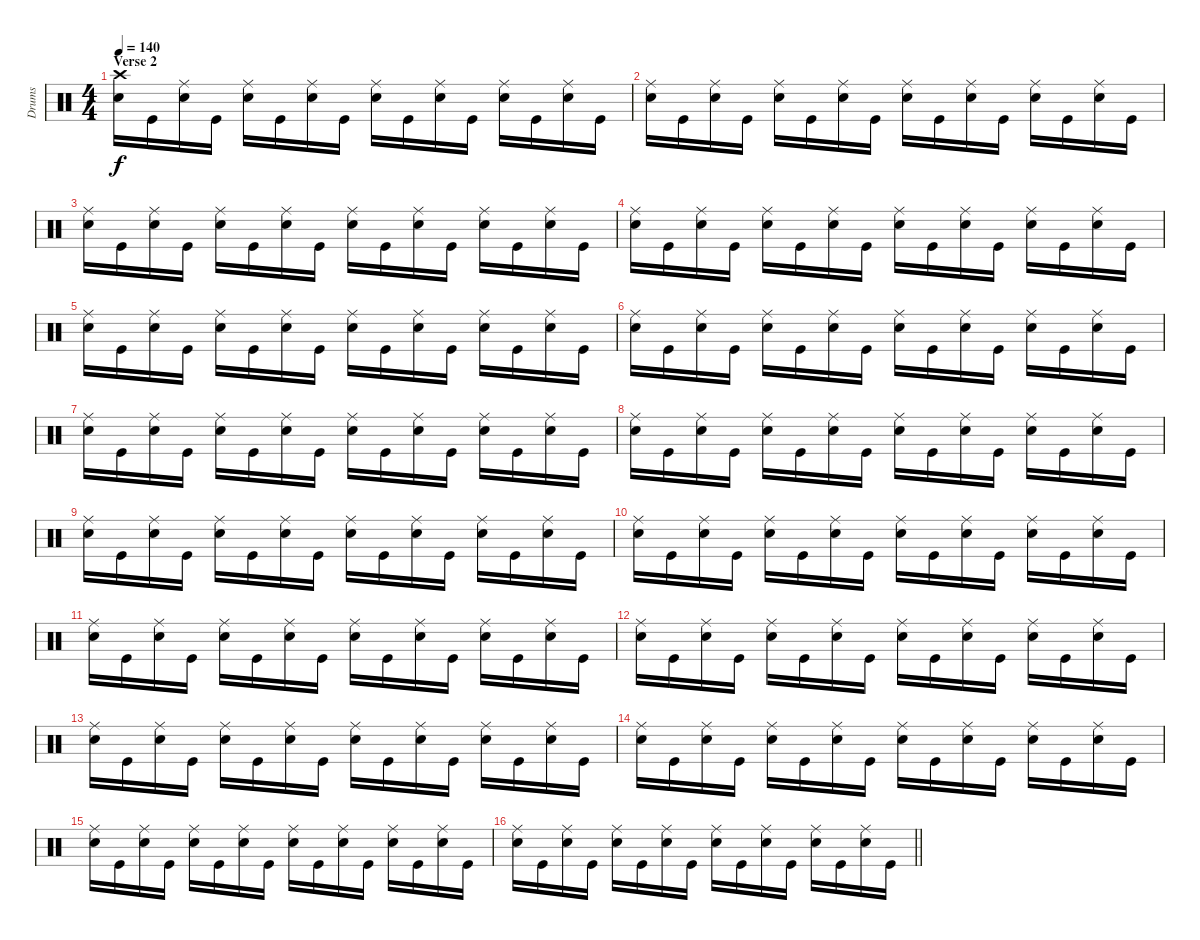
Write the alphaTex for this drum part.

\track ("Drums" "Drums") {instrument percussion}
\staff {score}
\articulation defaults
\ts (4 4)
\section ("" "Verse 2")
\tempo 140
\clef neutral
\ks c
("Crash high (hit)" "Snare (hit) 2").16{dy f} "Kick (hit)".16 ("Ride (middle)" "Snare (hit) 2").16 "Kick (hit)".16 ("Ride (middle)" "Snare (hit) 2").16 "Kick (hit)".16 ("Ride (middle)" "Snare (hit) 2").16 "Kick (hit)".16 ("Ride (middle)" "Snare (hit) 2").16 "Kick (hit)".16 ("Ride (middle)" "Snare (hit) 2").16 "Kick (hit)".16 ("Ride (middle)" "Snare (hit) 2").16 "Kick (hit)".16 ("Ride (middle)" "Snare (hit) 2").16 "Kick (hit)".16 |
("Ride (middle)" "Snare (hit) 2").16 "Kick (hit)".16 ("Ride (middle)" "Snare (hit) 2").16 "Kick (hit)".16 ("Ride (middle)" "Snare (hit) 2").16 "Kick (hit)".16 ("Ride (middle)" "Snare (hit) 2").16 "Kick (hit)".16 ("Ride (middle)" "Snare (hit) 2").16 "Kick (hit)".16 ("Ride (middle)" "Snare (hit) 2").16 "Kick (hit)".16 ("Ride (middle)" "Snare (hit) 2").16 "Kick (hit)".16 ("Ride (middle)" "Snare (hit) 2").16 "Kick (hit)".16 |
("Ride (middle)" "Snare (hit) 2").16 "Kick (hit)".16 ("Ride (middle)" "Snare (hit) 2").16 "Kick (hit)".16 ("Ride (middle)" "Snare (hit) 2").16 "Kick (hit)".16 ("Ride (middle)" "Snare (hit) 2").16 "Kick (hit)".16 ("Ride (middle)" "Snare (hit) 2").16 "Kick (hit)".16 ("Ride (middle)" "Snare (hit) 2").16 "Kick (hit)".16 ("Ride (middle)" "Snare (hit) 2").16 "Kick (hit)".16 ("Ride (middle)" "Snare (hit) 2").16 "Kick (hit)".16 |
("Ride (middle)" "Snare (hit) 2").16 "Kick (hit)".16 ("Ride (middle)" "Snare (hit) 2").16 "Kick (hit)".16 ("Ride (middle)" "Snare (hit) 2").16 "Kick (hit)".16 ("Ride (middle)" "Snare (hit) 2").16 "Kick (hit)".16 ("Ride (middle)" "Snare (hit) 2").16 "Kick (hit)".16 ("Ride (middle)" "Snare (hit) 2").16 "Kick (hit)".16 ("Ride (middle)" "Snare (hit) 2").16 "Kick (hit)".16 ("Ride (middle)" "Snare (hit) 2").16 "Kick (hit)".16 |
("Ride (middle)" "Snare (hit) 2").16 "Kick (hit)".16 ("Ride (middle)" "Snare (hit) 2").16 "Kick (hit)".16 ("Ride (middle)" "Snare (hit) 2").16 "Kick (hit)".16 ("Ride (middle)" "Snare (hit) 2").16 "Kick (hit)".16 ("Ride (middle)" "Snare (hit) 2").16 "Kick (hit)".16 ("Ride (middle)" "Snare (hit) 2").16 "Kick (hit)".16 ("Ride (middle)" "Snare (hit) 2").16 "Kick (hit)".16 ("Ride (middle)" "Snare (hit) 2").16 "Kick (hit)".16 |
("Ride (middle)" "Snare (hit) 2").16 "Kick (hit)".16 ("Ride (middle)" "Snare (hit) 2").16 "Kick (hit)".16 ("Ride (middle)" "Snare (hit) 2").16 "Kick (hit)".16 ("Ride (middle)" "Snare (hit) 2").16 "Kick (hit)".16 ("Ride (middle)" "Snare (hit) 2").16 "Kick (hit)".16 ("Ride (middle)" "Snare (hit) 2").16 "Kick (hit)".16 ("Ride (middle)" "Snare (hit) 2").16 "Kick (hit)".16 ("Ride (middle)" "Snare (hit) 2").16 "Kick (hit)".16 |
("Ride (middle)" "Snare (hit) 2").16 "Kick (hit)".16 ("Ride (middle)" "Snare (hit) 2").16 "Kick (hit)".16 ("Ride (middle)" "Snare (hit) 2").16 "Kick (hit)".16 ("Ride (middle)" "Snare (hit) 2").16 "Kick (hit)".16 ("Ride (middle)" "Snare (hit) 2").16 "Kick (hit)".16 ("Ride (middle)" "Snare (hit) 2").16 "Kick (hit)".16 ("Ride (middle)" "Snare (hit) 2").16 "Kick (hit)".16 ("Ride (middle)" "Snare (hit) 2").16 "Kick (hit)".16 |
("Ride (middle)" "Snare (hit) 2").16 "Kick (hit)".16 ("Ride (middle)" "Snare (hit) 2").16 "Kick (hit)".16 ("Ride (middle)" "Snare (hit) 2").16 "Kick (hit)".16 ("Ride (middle)" "Snare (hit) 2").16 "Kick (hit)".16 ("Ride (middle)" "Snare (hit) 2").16 "Kick (hit)".16 ("Ride (middle)" "Snare (hit) 2").16 "Kick (hit)".16 ("Ride (middle)" "Snare (hit) 2").16 "Kick (hit)".16 ("Ride (middle)" "Snare (hit) 2").16 "Kick (hit)".16 |
("Ride (middle)" "Snare (hit) 2").16 "Kick (hit)".16 ("Ride (middle)" "Snare (hit) 2").16 "Kick (hit)".16 ("Ride (middle)" "Snare (hit) 2").16 "Kick (hit)".16 ("Ride (middle)" "Snare (hit) 2").16 "Kick (hit)".16 ("Ride (middle)" "Snare (hit) 2").16 "Kick (hit)".16 ("Ride (middle)" "Snare (hit) 2").16 "Kick (hit)".16 ("Ride (middle)" "Snare (hit) 2").16 "Kick (hit)".16 ("Ride (middle)" "Snare (hit) 2").16 "Kick (hit)".16 |
("Ride (middle)" "Snare (hit) 2").16 "Kick (hit)".16 ("Ride (middle)" "Snare (hit) 2").16 "Kick (hit)".16 ("Ride (middle)" "Snare (hit) 2").16 "Kick (hit)".16 ("Ride (middle)" "Snare (hit) 2").16 "Kick (hit)".16 ("Ride (middle)" "Snare (hit) 2").16 "Kick (hit)".16 ("Ride (middle)" "Snare (hit) 2").16 "Kick (hit)".16 ("Ride (middle)" "Snare (hit) 2").16 "Kick (hit)".16 ("Ride (middle)" "Snare (hit) 2").16 "Kick (hit)".16 |
("Ride (middle)" "Snare (hit) 2").16 "Kick (hit)".16 ("Ride (middle)" "Snare (hit) 2").16 "Kick (hit)".16 ("Ride (middle)" "Snare (hit) 2").16 "Kick (hit)".16 ("Ride (middle)" "Snare (hit) 2").16 "Kick (hit)".16 ("Ride (middle)" "Snare (hit) 2").16 "Kick (hit)".16 ("Ride (middle)" "Snare (hit) 2").16 "Kick (hit)".16 ("Ride (middle)" "Snare (hit) 2").16 "Kick (hit)".16 ("Ride (middle)" "Snare (hit) 2").16 "Kick (hit)".16 |
("Ride (middle)" "Snare (hit) 2").16 "Kick (hit)".16 ("Ride (middle)" "Snare (hit) 2").16 "Kick (hit)".16 ("Ride (middle)" "Snare (hit) 2").16 "Kick (hit)".16 ("Ride (middle)" "Snare (hit) 2").16 "Kick (hit)".16 ("Ride (middle)" "Snare (hit) 2").16 "Kick (hit)".16 ("Ride (middle)" "Snare (hit) 2").16 "Kick (hit)".16 ("Ride (middle)" "Snare (hit) 2").16 "Kick (hit)".16 ("Ride (middle)" "Snare (hit) 2").16 "Kick (hit)".16 |
("Ride (middle)" "Snare (hit) 2").16 "Kick (hit)".16 ("Ride (middle)" "Snare (hit) 2").16 "Kick (hit)".16 ("Ride (middle)" "Snare (hit) 2").16 "Kick (hit)".16 ("Ride (middle)" "Snare (hit) 2").16 "Kick (hit)".16 ("Ride (middle)" "Snare (hit) 2").16 "Kick (hit)".16 ("Ride (middle)" "Snare (hit) 2").16 "Kick (hit)".16 ("Ride (middle)" "Snare (hit) 2").16 "Kick (hit)".16 ("Ride (middle)" "Snare (hit) 2").16 "Kick (hit)".16 |
("Ride (middle)" "Snare (hit) 2").16 "Kick (hit)".16 ("Ride (middle)" "Snare (hit) 2").16 "Kick (hit)".16 ("Ride (middle)" "Snare (hit) 2").16 "Kick (hit)".16 ("Ride (middle)" "Snare (hit) 2").16 "Kick (hit)".16 ("Ride (middle)" "Snare (hit) 2").16 "Kick (hit)".16 ("Ride (middle)" "Snare (hit) 2").16 "Kick (hit)".16 ("Ride (middle)" "Snare (hit) 2").16 "Kick (hit)".16 ("Ride (middle)" "Snare (hit) 2").16 "Kick (hit)".16 |
("Ride (middle)" "Snare (hit) 2").16 "Kick (hit)".16 ("Ride (middle)" "Snare (hit) 2").16 "Kick (hit)".16 ("Ride (middle)" "Snare (hit) 2").16 "Kick (hit)".16 ("Ride (middle)" "Snare (hit) 2").16 "Kick (hit)".16 ("Ride (middle)" "Snare (hit) 2").16 "Kick (hit)".16 ("Ride (middle)" "Snare (hit) 2").16 "Kick (hit)".16 ("Ride (middle)" "Snare (hit) 2").16 "Kick (hit)".16 ("Ride (middle)" "Snare (hit) 2").16 "Kick (hit)".16 |
\barLineRight lightlight
("Ride (middle)" "Snare (hit) 2").16 "Kick (hit)".16 ("Ride (middle)" "Snare (hit) 2").16 "Kick (hit)".16 ("Ride (middle)" "Snare (hit) 2").16 "Kick (hit)".16 ("Ride (middle)" "Snare (hit) 2").16 "Kick (hit)".16 ("Ride (middle)" "Snare (hit) 2").16 "Kick (hit)".16 ("Ride (middle)" "Snare (hit) 2").16 "Kick (hit)".16 ("Ride (middle)" "Snare (hit) 2").16 "Kick (hit)".16 ("Ride (middle)" "Snare (hit) 2").16 "Kick (hit)".16
